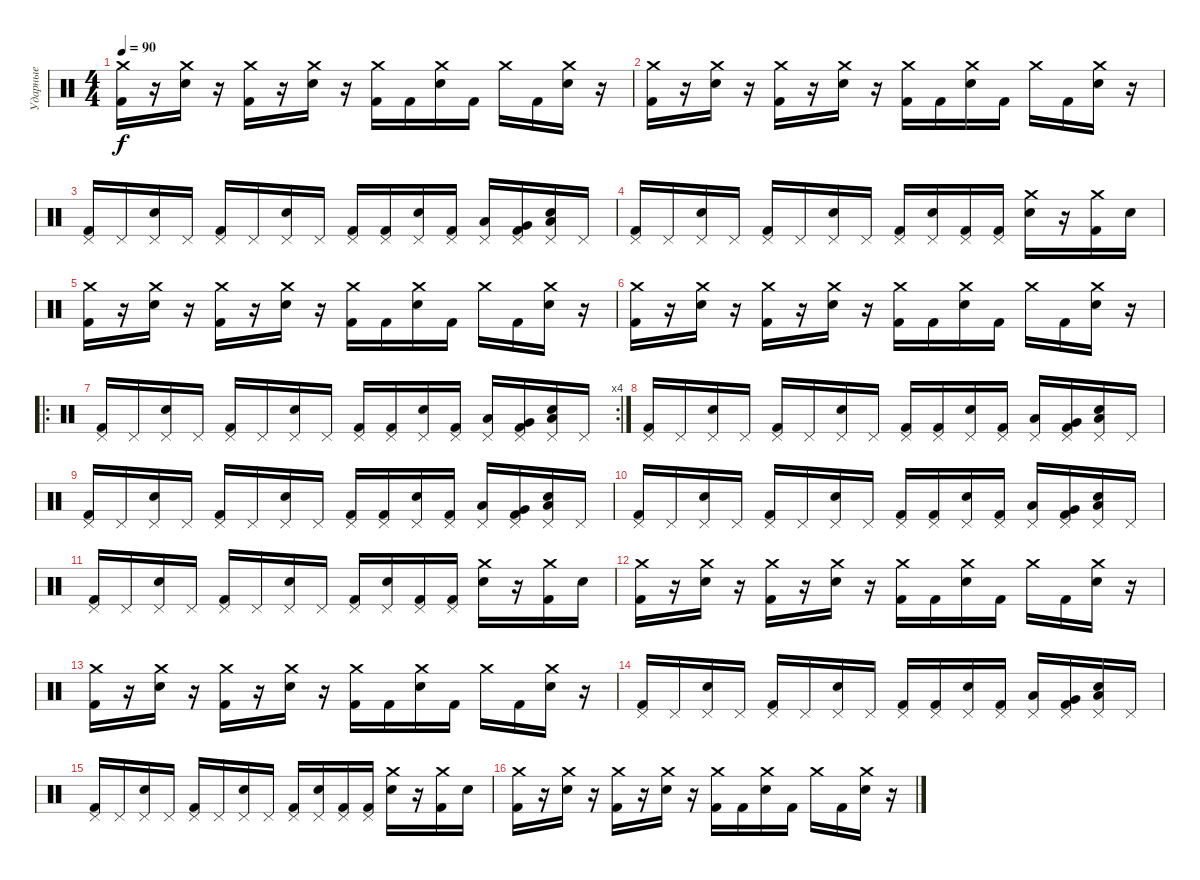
\track ("Ударные" "Ударные") {instrument percussion}
\staff {score}
\articulation defaults
\ts (4 4)
\tempo 90
\clef neutral
\ks c
("Crash medium (hit)" "Kick (hit) 2").16{dy f} r.16 ("Crash medium (hit)" "Electric Snare (hit)").16 r.16 ("Crash medium (hit)" "Kick (hit) 2").16 r.16 ("Crash medium (hit)" "Electric Snare (hit)").16 r.16 ("Crash medium (hit)" "Kick (hit) 2").16 "Kick (hit) 2".16 ("Crash medium (hit)" "Electric Snare (hit)").16 "Kick (hit) 2".16 "Crash medium (hit)".16 "Kick (hit) 2".16 ("Crash medium (hit)" "Electric Snare (hit)").16 r.16 |
("Crash medium (hit)" "Kick (hit) 2").16 r.16 ("Crash medium (hit)" "Electric Snare (hit)").16 r.16 ("Crash medium (hit)" "Kick (hit) 2").16 r.16 ("Crash medium (hit)" "Electric Snare (hit)").16 r.16 ("Crash medium (hit)" "Kick (hit) 2").16 "Kick (hit) 2".16 ("Crash medium (hit)" "Electric Snare (hit)").16 "Kick (hit) 2".16 "Crash medium (hit)".16 "Kick (hit) 2".16 ("Crash medium (hit)" "Electric Snare (hit)").16 r.16 |
("Pedal Hi-Hat (hit)" "Kick (hit) 2").16 "Pedal Hi-Hat (hit)".16 ("Pedal Hi-Hat (hit)" "Electric Snare (hit)").16 "Pedal Hi-Hat (hit)".16 ("Pedal Hi-Hat (hit)" "Kick (hit) 2").16 "Pedal Hi-Hat (hit)".16 ("Pedal Hi-Hat (hit)" "Electric Snare (hit)").16 "Pedal Hi-Hat (hit)".16 ("Pedal Hi-Hat (hit)" "Kick (hit) 2").16 ("Pedal Hi-Hat (hit)" "Kick (hit) 2").16 ("Pedal Hi-Hat (hit)" "Electric Snare (hit)").16 ("Pedal Hi-Hat (hit)" "Kick (hit) 2").16 ("Pedal Hi-Hat (hit)" "Low Floor Tom (hit)").16 ("Pedal Hi-Hat (hit)" "Very Low Tom (hit)" "Kick (hit) 2").16 ("Pedal Hi-Hat (hit)" "Low Tom (hit)" "Electric Snare (hit)").16 "Pedal Hi-Hat (hit)".16 |
("Pedal Hi-Hat (hit)" "Kick (hit) 2").16 "Pedal Hi-Hat (hit)".16 ("Pedal Hi-Hat (hit)" "Electric Snare (hit)").16 "Pedal Hi-Hat (hit)".16 ("Pedal Hi-Hat (hit)" "Kick (hit) 2").16 "Pedal Hi-Hat (hit)".16 ("Pedal Hi-Hat (hit)" "Electric Snare (hit)").16 "Pedal Hi-Hat (hit)".16 ("Pedal Hi-Hat (hit)" "Kick (hit) 2").16 ("Pedal Hi-Hat (hit)" "Electric Snare (hit)").16 ("Pedal Hi-Hat (hit)" "Kick (hit) 2").16 ("Pedal Hi-Hat (hit)" "Kick (hit) 2").16 ("Crash medium (hit)" "Electric Snare (hit)").16 r.16 ("Crash medium (hit)" "Kick (hit) 2").16 "Electric Snare (hit)".16 |
("Crash medium (hit)" "Kick (hit) 2").16 r.16 ("Crash medium (hit)" "Electric Snare (hit)").16 r.16 ("Crash medium (hit)" "Kick (hit) 2").16 r.16 ("Crash medium (hit)" "Electric Snare (hit)").16 r.16 ("Crash medium (hit)" "Kick (hit) 2").16 "Kick (hit) 2".16 ("Crash medium (hit)" "Electric Snare (hit)").16 "Kick (hit) 2".16 "Crash medium (hit)".16 "Kick (hit) 2".16 ("Crash medium (hit)" "Electric Snare (hit)").16 r.16 |
("Crash medium (hit)" "Kick (hit) 2").16 r.16 ("Crash medium (hit)" "Electric Snare (hit)").16 r.16 ("Crash medium (hit)" "Kick (hit) 2").16 r.16 ("Crash medium (hit)" "Electric Snare (hit)").16 r.16 ("Crash medium (hit)" "Kick (hit) 2").16 "Kick (hit) 2".16 ("Crash medium (hit)" "Electric Snare (hit)").16 "Kick (hit) 2".16 "Crash medium (hit)".16 "Kick (hit) 2".16 ("Crash medium (hit)" "Electric Snare (hit)").16 r.16 |
\ro
\rc 4
("Pedal Hi-Hat (hit)" "Kick (hit) 2").16 "Pedal Hi-Hat (hit)".16 ("Pedal Hi-Hat (hit)" "Electric Snare (hit)").16 "Pedal Hi-Hat (hit)".16 ("Pedal Hi-Hat (hit)" "Kick (hit) 2").16 "Pedal Hi-Hat (hit)".16 ("Pedal Hi-Hat (hit)" "Electric Snare (hit)").16 "Pedal Hi-Hat (hit)".16 ("Pedal Hi-Hat (hit)" "Kick (hit) 2").16 ("Pedal Hi-Hat (hit)" "Kick (hit) 2").16 ("Pedal Hi-Hat (hit)" "Electric Snare (hit)").16 ("Pedal Hi-Hat (hit)" "Kick (hit) 2").16 ("Pedal Hi-Hat (hit)" "Low Floor Tom (hit)").16 ("Pedal Hi-Hat (hit)" "Very Low Tom (hit)" "Kick (hit) 2").16 ("Pedal Hi-Hat (hit)" "Low Tom (hit)" "Electric Snare (hit)").16 "Pedal Hi-Hat (hit)".16 |
("Pedal Hi-Hat (hit)" "Kick (hit) 2").16 "Pedal Hi-Hat (hit)".16 ("Pedal Hi-Hat (hit)" "Electric Snare (hit)").16 "Pedal Hi-Hat (hit)".16 ("Pedal Hi-Hat (hit)" "Kick (hit) 2").16 "Pedal Hi-Hat (hit)".16 ("Pedal Hi-Hat (hit)" "Electric Snare (hit)").16 "Pedal Hi-Hat (hit)".16 ("Pedal Hi-Hat (hit)" "Kick (hit) 2").16 ("Pedal Hi-Hat (hit)" "Kick (hit) 2").16 ("Pedal Hi-Hat (hit)" "Electric Snare (hit)").16 ("Pedal Hi-Hat (hit)" "Kick (hit) 2").16 ("Pedal Hi-Hat (hit)" "Low Floor Tom (hit)").16 ("Pedal Hi-Hat (hit)" "Very Low Tom (hit)" "Kick (hit) 2").16 ("Pedal Hi-Hat (hit)" "Low Tom (hit)" "Electric Snare (hit)").16 "Pedal Hi-Hat (hit)".16 |
("Pedal Hi-Hat (hit)" "Kick (hit) 2").16 "Pedal Hi-Hat (hit)".16 ("Pedal Hi-Hat (hit)" "Electric Snare (hit)").16 "Pedal Hi-Hat (hit)".16 ("Pedal Hi-Hat (hit)" "Kick (hit) 2").16 "Pedal Hi-Hat (hit)".16 ("Pedal Hi-Hat (hit)" "Electric Snare (hit)").16 "Pedal Hi-Hat (hit)".16 ("Pedal Hi-Hat (hit)" "Kick (hit) 2").16 ("Pedal Hi-Hat (hit)" "Kick (hit) 2").16 ("Pedal Hi-Hat (hit)" "Electric Snare (hit)").16 ("Pedal Hi-Hat (hit)" "Kick (hit) 2").16 ("Pedal Hi-Hat (hit)" "Low Floor Tom (hit)").16 ("Pedal Hi-Hat (hit)" "Very Low Tom (hit)" "Kick (hit) 2").16 ("Pedal Hi-Hat (hit)" "Low Tom (hit)" "Electric Snare (hit)").16 "Pedal Hi-Hat (hit)".16 |
("Pedal Hi-Hat (hit)" "Kick (hit) 2").16 "Pedal Hi-Hat (hit)".16 ("Pedal Hi-Hat (hit)" "Electric Snare (hit)").16 "Pedal Hi-Hat (hit)".16 ("Pedal Hi-Hat (hit)" "Kick (hit) 2").16 "Pedal Hi-Hat (hit)".16 ("Pedal Hi-Hat (hit)" "Electric Snare (hit)").16 "Pedal Hi-Hat (hit)".16 ("Pedal Hi-Hat (hit)" "Kick (hit) 2").16 ("Pedal Hi-Hat (hit)" "Kick (hit) 2").16 ("Pedal Hi-Hat (hit)" "Electric Snare (hit)").16 ("Pedal Hi-Hat (hit)" "Kick (hit) 2").16 ("Pedal Hi-Hat (hit)" "Low Floor Tom (hit)").16 ("Pedal Hi-Hat (hit)" "Very Low Tom (hit)" "Kick (hit) 2").16 ("Pedal Hi-Hat (hit)" "Low Tom (hit)" "Electric Snare (hit)").16 "Pedal Hi-Hat (hit)".16 |
("Pedal Hi-Hat (hit)" "Kick (hit) 2").16 "Pedal Hi-Hat (hit)".16 ("Pedal Hi-Hat (hit)" "Electric Snare (hit)").16 "Pedal Hi-Hat (hit)".16 ("Pedal Hi-Hat (hit)" "Kick (hit) 2").16 "Pedal Hi-Hat (hit)".16 ("Pedal Hi-Hat (hit)" "Electric Snare (hit)").16 "Pedal Hi-Hat (hit)".16 ("Pedal Hi-Hat (hit)" "Kick (hit) 2").16 ("Pedal Hi-Hat (hit)" "Electric Snare (hit)").16 ("Pedal Hi-Hat (hit)" "Kick (hit) 2").16 ("Pedal Hi-Hat (hit)" "Kick (hit) 2").16 ("Crash medium (hit)" "Electric Snare (hit)").16 r.16 ("Crash medium (hit)" "Kick (hit) 2").16 "Electric Snare (hit)".16 |
("Crash medium (hit)" "Kick (hit) 2").16 r.16 ("Crash medium (hit)" "Electric Snare (hit)").16 r.16 ("Crash medium (hit)" "Kick (hit) 2").16 r.16 ("Crash medium (hit)" "Electric Snare (hit)").16 r.16 ("Crash medium (hit)" "Kick (hit) 2").16 "Kick (hit) 2".16 ("Crash medium (hit)" "Electric Snare (hit)").16 "Kick (hit) 2".16 "Crash medium (hit)".16 "Kick (hit) 2".16 ("Crash medium (hit)" "Electric Snare (hit)").16 r.16 |
("Crash medium (hit)" "Kick (hit) 2").16 r.16 ("Crash medium (hit)" "Electric Snare (hit)").16 r.16 ("Crash medium (hit)" "Kick (hit) 2").16 r.16 ("Crash medium (hit)" "Electric Snare (hit)").16 r.16 ("Crash medium (hit)" "Kick (hit) 2").16 "Kick (hit) 2".16 ("Crash medium (hit)" "Electric Snare (hit)").16 "Kick (hit) 2".16 "Crash medium (hit)".16 "Kick (hit) 2".16 ("Crash medium (hit)" "Electric Snare (hit)").16 r.16 |
("Pedal Hi-Hat (hit)" "Kick (hit) 2").16 "Pedal Hi-Hat (hit)".16 ("Pedal Hi-Hat (hit)" "Electric Snare (hit)").16 "Pedal Hi-Hat (hit)".16 ("Pedal Hi-Hat (hit)" "Kick (hit) 2").16 "Pedal Hi-Hat (hit)".16 ("Pedal Hi-Hat (hit)" "Electric Snare (hit)").16 "Pedal Hi-Hat (hit)".16 ("Pedal Hi-Hat (hit)" "Kick (hit) 2").16 ("Pedal Hi-Hat (hit)" "Kick (hit) 2").16 ("Pedal Hi-Hat (hit)" "Electric Snare (hit)").16 ("Pedal Hi-Hat (hit)" "Kick (hit) 2").16 ("Pedal Hi-Hat (hit)" "Low Floor Tom (hit)").16 ("Pedal Hi-Hat (hit)" "Very Low Tom (hit)" "Kick (hit) 2").16 ("Pedal Hi-Hat (hit)" "Low Tom (hit)" "Electric Snare (hit)").16 "Pedal Hi-Hat (hit)".16 |
("Pedal Hi-Hat (hit)" "Kick (hit) 2").16 "Pedal Hi-Hat (hit)".16 ("Pedal Hi-Hat (hit)" "Electric Snare (hit)").16 "Pedal Hi-Hat (hit)".16 ("Pedal Hi-Hat (hit)" "Kick (hit) 2").16 "Pedal Hi-Hat (hit)".16 ("Pedal Hi-Hat (hit)" "Electric Snare (hit)").16 "Pedal Hi-Hat (hit)".16 ("Pedal Hi-Hat (hit)" "Kick (hit) 2").16 ("Pedal Hi-Hat (hit)" "Electric Snare (hit)").16 ("Pedal Hi-Hat (hit)" "Kick (hit) 2").16 ("Pedal Hi-Hat (hit)" "Kick (hit) 2").16 ("Crash medium (hit)" "Electric Snare (hit)").16 r.16 ("Crash medium (hit)" "Kick (hit) 2").16 "Electric Snare (hit)".16 |
("Crash medium (hit)" "Kick (hit) 2").16 r.16 ("Crash medium (hit)" "Electric Snare (hit)").16 r.16 ("Crash medium (hit)" "Kick (hit) 2").16 r.16 ("Crash medium (hit)" "Electric Snare (hit)").16 r.16 ("Crash medium (hit)" "Kick (hit) 2").16 "Kick (hit) 2".16 ("Crash medium (hit)" "Electric Snare (hit)").16 "Kick (hit) 2".16 "Crash medium (hit)".16 "Kick (hit) 2".16 ("Crash medium (hit)" "Electric Snare (hit)").16 r.16
